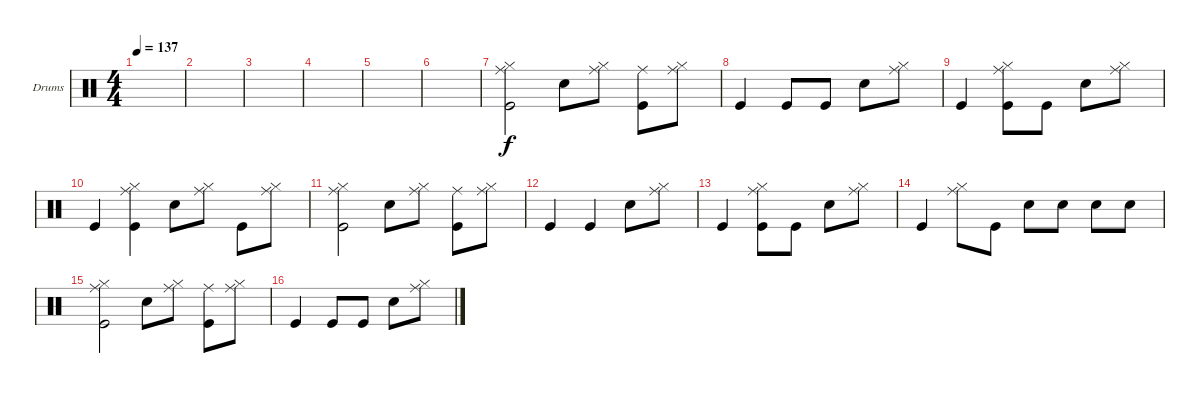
\defaultSystemsLayout 4
\bracketExtendMode groupsimilarinstruments
\firstSystemTrackNameOrientation horizontal
\otherSystemsTrackNameOrientation horizontal
\track ("Drumkit" "Drums") {instrument percussion}
\staff {score}
\articulation defaults
\ts (4 4)
\tempo 137
\clef neutral
\ks c
|
|
|
|
|
|
("Kick (hit)" "Ride (middle)" "Hi-Hat (closed)").2 "Snare (hit) 2".8 ("Hi-Hat (closed)" "Ride (middle)").8 ("Kick (hit)" "Ride (middle)").8 ("Hi-Hat (closed)" "Ride (middle)").8 |
"Kick (hit)".4 "Kick (hit)".8 "Kick (hit)".8 "Snare (hit) 2".8 ("Hi-Hat (closed)" "Ride (middle)").8 |
"Kick (hit)".4 ("Kick (hit)" "Ride (middle)" "Hi-Hat (closed)").8 "Kick (hit)".8 "Snare (hit) 2".8 ("Hi-Hat (closed)" "Ride (middle)").8 |
"Kick (hit)".4 ("Kick (hit)" "Ride (middle)" "Hi-Hat (closed)").4 "Snare (hit) 2".8 ("Ride (middle)" "Hi-Hat (closed)").8 "Kick (hit)".8 ("Ride (middle)" "Hi-Hat (closed)").8 |
("Kick (hit)" "Ride (middle)" "Hi-Hat (closed)").2 "Snare (hit) 2".8 ("Hi-Hat (closed)" "Ride (middle)").8 ("Kick (hit)" "Ride (middle)").8 ("Hi-Hat (closed)" "Ride (middle)").8 |
"Kick (hit)".4 "Kick (hit)".4 "Snare (hit) 2".8 ("Hi-Hat (closed)" "Ride (middle)").8 |
"Kick (hit)".4 ("Kick (hit)" "Ride (middle)" "Hi-Hat (closed)").8 "Kick (hit)".8 "Snare (hit) 2".8 ("Hi-Hat (closed)" "Ride (middle)").8 |
"Kick (hit)".4 ("Ride (middle)" "Hi-Hat (closed)").8 "Kick (hit)".8 "Snare (hit) 2".8 "Snare (hit) 2".8 "Snare (hit) 2".8 "Snare (hit) 2".8 |
("Kick (hit)" "Ride (middle)" "Hi-Hat (closed)").2 "Snare (hit) 2".8 ("Hi-Hat (closed)" "Ride (middle)").8 ("Kick (hit)" "Ride (middle)").8 ("Hi-Hat (closed)" "Ride (middle)").8 |
"Kick (hit)".4 "Kick (hit)".8 "Kick (hit)".8 "Snare (hit) 2".8 ("Hi-Hat (closed)" "Ride (middle)").8
